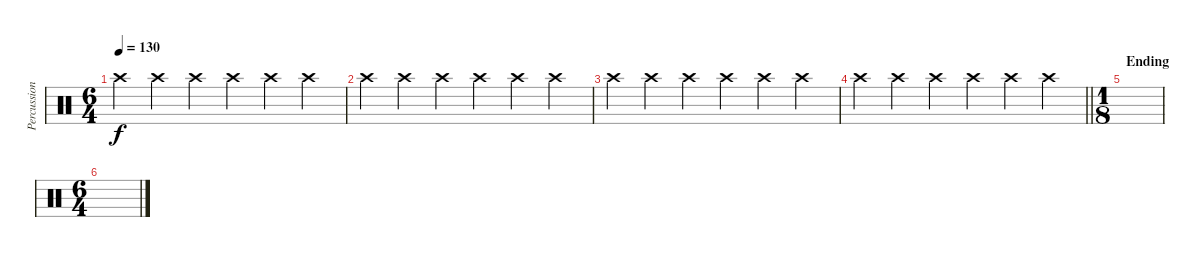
\track ("Percussion" "Percussion") {instrument percussion}
\staff {score}
\articulation defaults
\ts (6 4)
\tempo 130
\clef neutral
\ks c "Crash high (hit)".4{dy f} "Crash high (hit)".4 "Crash high (hit)".4 "Crash high (hit)".4 "Crash high (hit)".4 "Crash high (hit)".4
|
"Crash high (hit)".4 "Crash high (hit)".4 "Crash high (hit)".4 "Crash high (hit)".4 "Crash high (hit)".4 "Crash high (hit)".4 |
"Crash high (hit)".4 "Crash high (hit)".4 "Crash high (hit)".4 "Crash high (hit)".4 "Crash high (hit)".4 "Crash high (hit)".4 |
\barLineRight lightlight "Crash high (hit)".4 "Crash high (hit)".4 "Crash high (hit)".4 "Crash high (hit)".4 "Crash high (hit)".4 "Crash high (hit)".4
|
\ts (1 8)
\section ("" "Ending")
|
\ts (6 4)
